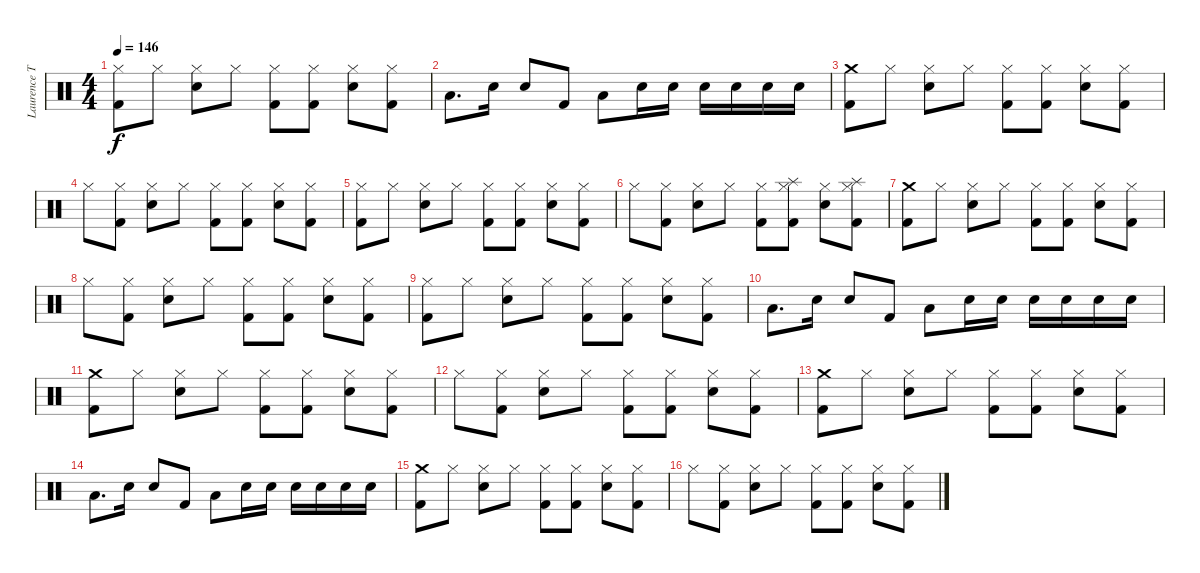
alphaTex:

\track ("Laurence Tolhurst drums" "Laurence T") {instrument percussion}
\staff {score}
\articulation defaults
\ts (4 4)
\tempo 146
\clef neutral
\ks c
("Hi-Hat (closed)" "Kick (hit) 2").8{dy f} "Hi-Hat (closed)".8 ("Hi-Hat (closed)" "Snare (hit) 2").8 "Hi-Hat (closed)".8 ("Hi-Hat (closed)" "Kick (hit) 2").8 ("Hi-Hat (closed)" "Kick (hit) 2").8 ("Hi-Hat (closed)" "Snare (hit) 2").8 ("Hi-Hat (closed)" "Kick (hit) 2").8 |
"Low Tom (hit)".8{d} "Snare (hit) 2".16 "Snare (hit) 2".8 "Kick (hit) 2".8 "Low Tom (hit)".8 "Snare (hit) 2".16 "Snare (hit) 2".16 "Snare (hit) 2".16 "Snare (hit) 2".16 "Snare (hit) 2".16 "Snare (hit) 2".16 |
("Crash medium (hit)" "Kick (hit) 2").8 "Hi-Hat (closed)".8 ("Hi-Hat (closed)" "Snare (hit) 2").8 "Hi-Hat (closed)".8 ("Hi-Hat (closed)" "Kick (hit) 2").8 ("Hi-Hat (closed)" "Kick (hit) 2").8 ("Hi-Hat (closed)" "Snare (hit) 2").8 ("Hi-Hat (closed)" "Kick (hit) 2").8 |
"Hi-Hat (closed)".8 ("Hi-Hat (closed)" "Kick (hit) 2").8 ("Hi-Hat (closed)" "Snare (hit) 2").8 "Hi-Hat (closed)".8 ("Hi-Hat (closed)" "Kick (hit) 2").8 ("Hi-Hat (closed)" "Kick (hit) 2").8 ("Hi-Hat (closed)" "Snare (hit) 2").8 ("Hi-Hat (closed)" "Kick (hit) 2").8 |
("Hi-Hat (closed)" "Kick (hit) 2").8 "Hi-Hat (closed)".8 ("Hi-Hat (closed)" "Snare (hit) 2").8 "Hi-Hat (closed)".8 ("Hi-Hat (closed)" "Kick (hit) 2").8 ("Hi-Hat (closed)" "Kick (hit) 2").8 ("Hi-Hat (closed)" "Snare (hit) 2").8 ("Hi-Hat (closed)" "Kick (hit) 2").8 |
"Hi-Hat (closed)".8 ("Hi-Hat (closed)" "Kick (hit) 2").8 ("Hi-Hat (closed)" "Snare (hit) 2").8 "Hi-Hat (closed)".8 ("Hi-Hat (closed)" "Kick (hit) 2").8 ("Hi-Hat (closed)" "Kick (hit) 2" "Splash (hit)").8 ("Hi-Hat (closed)" "Snare (hit) 2").8 ("Hi-Hat (closed)" "Kick (hit) 2" "Splash (hit)").8 |
("Crash medium (hit)" "Kick (hit) 2").8 "Hi-Hat (closed)".8 ("Hi-Hat (closed)" "Snare (hit) 2").8 "Hi-Hat (closed)".8 ("Hi-Hat (closed)" "Kick (hit) 2").8 ("Hi-Hat (closed)" "Kick (hit) 2").8 ("Hi-Hat (closed)" "Snare (hit) 2").8 ("Hi-Hat (closed)" "Kick (hit) 2").8 |
"Hi-Hat (closed)".8 ("Hi-Hat (closed)" "Kick (hit) 2").8 ("Hi-Hat (closed)" "Snare (hit) 2").8 "Hi-Hat (closed)".8 ("Hi-Hat (closed)" "Kick (hit) 2").8 ("Hi-Hat (closed)" "Kick (hit) 2").8 ("Hi-Hat (closed)" "Snare (hit) 2").8 ("Hi-Hat (closed)" "Kick (hit) 2").8 |
("Hi-Hat (closed)" "Kick (hit) 2").8 "Hi-Hat (closed)".8 ("Hi-Hat (closed)" "Snare (hit) 2").8 "Hi-Hat (closed)".8 ("Hi-Hat (closed)" "Kick (hit) 2").8 ("Hi-Hat (closed)" "Kick (hit) 2").8 ("Hi-Hat (closed)" "Snare (hit) 2").8 ("Hi-Hat (closed)" "Kick (hit) 2").8 |
"Low Tom (hit)".8{d} "Snare (hit) 2".16 "Snare (hit) 2".8 "Kick (hit) 2".8 "Low Tom (hit)".8 "Snare (hit) 2".16 "Snare (hit) 2".16 "Snare (hit) 2".16 "Snare (hit) 2".16 "Snare (hit) 2".16 "Snare (hit) 2".16 |
("Crash medium (hit)" "Kick (hit) 2").8 "Hi-Hat (closed)".8 ("Hi-Hat (closed)" "Snare (hit) 2").8 "Hi-Hat (closed)".8 ("Hi-Hat (closed)" "Kick (hit) 2").8 ("Hi-Hat (closed)" "Kick (hit) 2").8 ("Hi-Hat (closed)" "Snare (hit) 2").8 ("Hi-Hat (closed)" "Kick (hit) 2").8 |
"Hi-Hat (closed)".8 ("Hi-Hat (closed)" "Kick (hit) 2").8 ("Hi-Hat (closed)" "Snare (hit) 2").8 "Hi-Hat (closed)".8 ("Hi-Hat (closed)" "Kick (hit) 2").8 ("Hi-Hat (closed)" "Kick (hit) 2").8 ("Hi-Hat (closed)" "Snare (hit) 2").8 ("Hi-Hat (closed)" "Kick (hit) 2").8 |
("Crash medium (hit)" "Kick (hit) 2").8 "Hi-Hat (closed)".8 ("Hi-Hat (closed)" "Snare (hit) 2").8 "Hi-Hat (closed)".8 ("Hi-Hat (closed)" "Kick (hit) 2").8 ("Hi-Hat (closed)" "Kick (hit) 2").8 ("Hi-Hat (closed)" "Snare (hit) 2").8 ("Hi-Hat (closed)" "Kick (hit) 2").8 |
"Low Tom (hit)".8{d} "Snare (hit) 2".16 "Snare (hit) 2".8 "Kick (hit) 2".8 "Low Tom (hit)".8 "Snare (hit) 2".16 "Snare (hit) 2".16 "Snare (hit) 2".16 "Snare (hit) 2".16 "Snare (hit) 2".16 "Snare (hit) 2".16 |
("Crash medium (hit)" "Kick (hit) 2").8 "Hi-Hat (closed)".8 ("Hi-Hat (closed)" "Snare (hit) 2").8 "Hi-Hat (closed)".8 ("Hi-Hat (closed)" "Kick (hit) 2").8 ("Hi-Hat (closed)" "Kick (hit) 2").8 ("Hi-Hat (closed)" "Snare (hit) 2").8 ("Hi-Hat (closed)" "Kick (hit) 2").8 |
"Hi-Hat (closed)".8 ("Hi-Hat (closed)" "Kick (hit) 2").8 ("Hi-Hat (closed)" "Snare (hit) 2").8 "Hi-Hat (closed)".8 ("Hi-Hat (closed)" "Kick (hit) 2").8 ("Hi-Hat (closed)" "Kick (hit) 2").8 ("Hi-Hat (closed)" "Snare (hit) 2").8 ("Hi-Hat (closed)" "Kick (hit) 2").8
